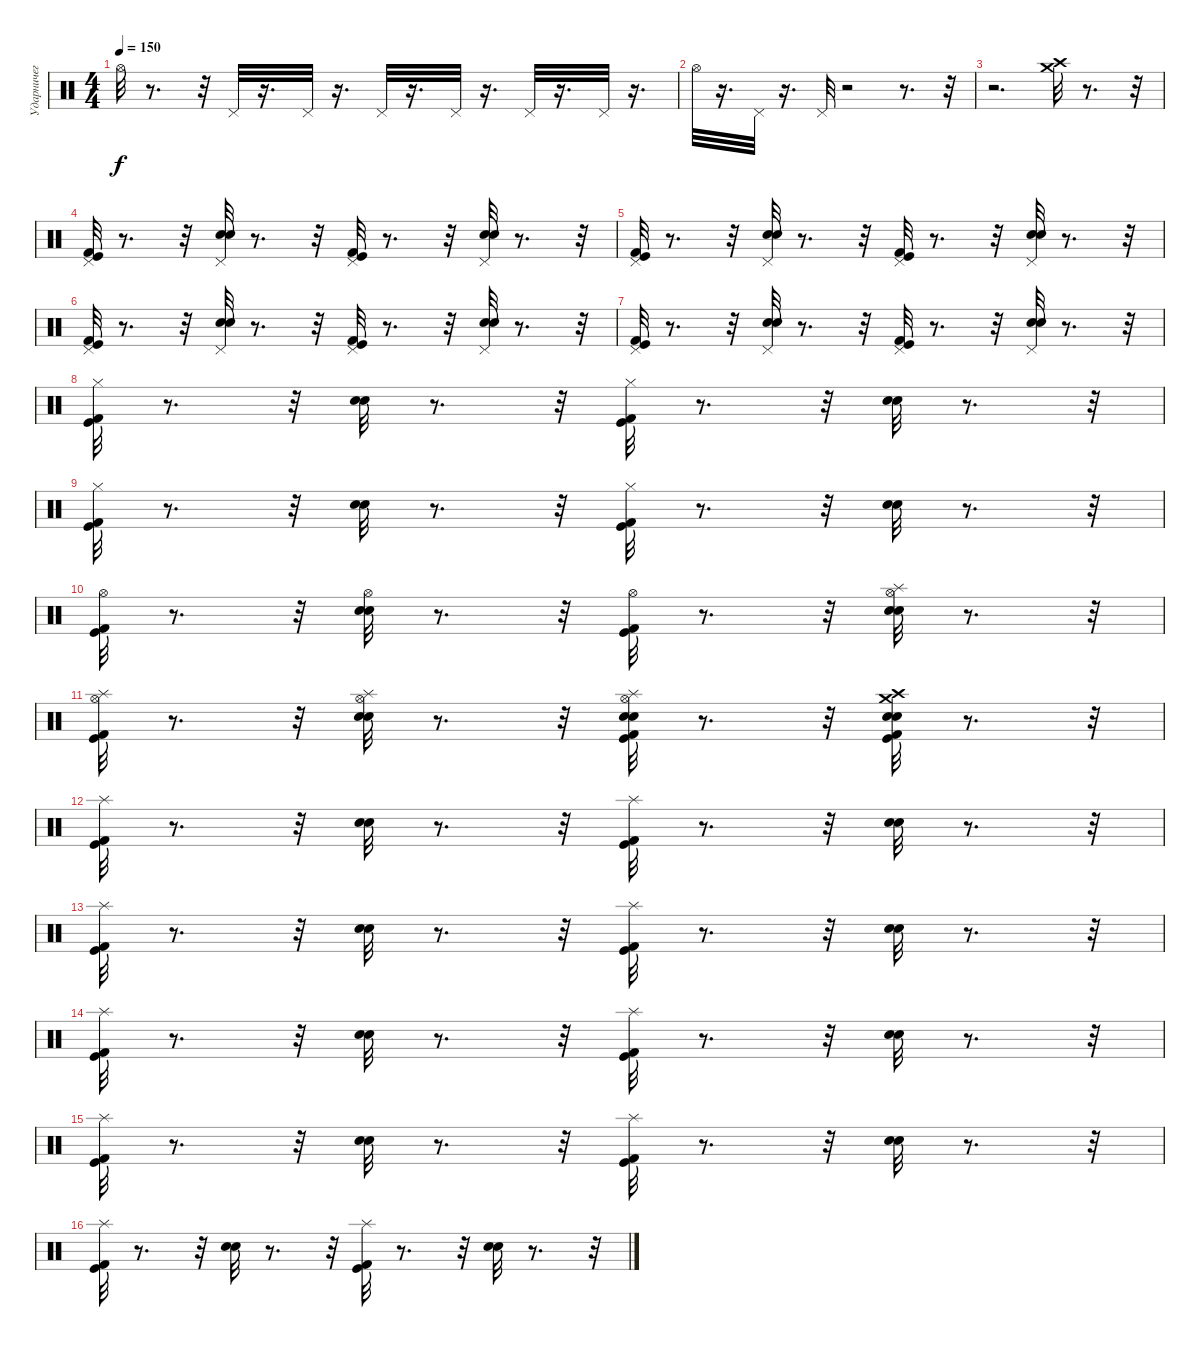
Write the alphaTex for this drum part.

\track ("Ударничег" "Ударничег") {instrument percussion}
\staff {score}
\articulation defaults
\ts (4 4)
\tempo 150
\clef neutral
\ks c "Hi-Hat (open)".32{dy f}
r.8{d} r.32 "Pedal Hi-Hat (hit)".32 r.16{d} "Pedal Hi-Hat (hit)".32 r.16{d} "Pedal Hi-Hat (hit)".32 r.16{d} "Pedal Hi-Hat (hit)".32 r.16{d} "Pedal Hi-Hat (hit)".32 r.16{d} "Pedal Hi-Hat (hit)".32 r.16{d} |
"Hi-Hat (open)".32 r.16{d} "Pedal Hi-Hat (hit)".32 r.16{d} "Pedal Hi-Hat (hit)".32 r.2 r.8{d} r.32 |
r.2{d} ("Crash high (hit)" "Crash medium (hit)").32 r.8{d} r.32 |
("Pedal Hi-Hat (hit)" "Kick (hit) 2" "Kick (hit)").32 r.8{d} r.32 ("Electric Snare (hit)" "Snare (hit) 2" "Pedal Hi-Hat (hit)").32 r.8{d} r.32 ("Pedal Hi-Hat (hit)" "Kick (hit)" "Kick (hit) 2").32 r.8{d} r.32 ("Snare (hit) 2" "Electric Snare (hit)" "Pedal Hi-Hat (hit)").32 r.8{d} r.32 |
("Pedal Hi-Hat (hit)" "Kick (hit)" "Kick (hit) 2").32 r.8{d} r.32 ("Electric Snare (hit)" "Snare (hit) 2" "Pedal Hi-Hat (hit)").32 r.8{d} r.32 ("Kick (hit)" "Kick (hit) 2" "Pedal Hi-Hat (hit)").32 r.8{d} r.32 ("Snare (hit) 2" "Electric Snare (hit)" "Pedal Hi-Hat (hit)").32 r.8{d} r.32 |
("Pedal Hi-Hat (hit)" "Kick (hit) 2" "Kick (hit)").32 r.8{d} r.32 ("Electric Snare (hit)" "Snare (hit) 2" "Pedal Hi-Hat (hit)").32 r.8{d} r.32 ("Pedal Hi-Hat (hit)" "Kick (hit)" "Kick (hit) 2").32 r.8{d} r.32 ("Snare (hit) 2" "Electric Snare (hit)" "Pedal Hi-Hat (hit)").32 r.8{d} r.32 |
("Pedal Hi-Hat (hit)" "Kick (hit)" "Kick (hit) 2").32 r.8{d} r.32 ("Electric Snare (hit)" "Snare (hit) 2" "Pedal Hi-Hat (hit)").32 r.8{d} r.32 ("Kick (hit)" "Kick (hit) 2" "Pedal Hi-Hat (hit)").32 r.8{d} r.32 ("Snare (hit) 2" "Electric Snare (hit)" "Pedal Hi-Hat (hit)").32 r.8{d} r.32 |
("Hi-Hat (closed)" "Kick (hit) 2" "Kick (hit)").32 r.8{d} r.32 ("Electric Snare (hit)" "Snare (hit) 2").32 r.8{d} r.32 ("Hi-Hat (closed)" "Kick (hit)" "Kick (hit) 2").32 r.8{d} r.32 ("Snare (hit) 2" "Electric Snare (hit)").32 r.8{d} r.32 |
("Hi-Hat (closed)" "Kick (hit)" "Kick (hit) 2").32 r.8{d} r.32 ("Electric Snare (hit)" "Snare (hit) 2").32 r.8{d} r.32 ("Hi-Hat (closed)" "Kick (hit)" "Kick (hit) 2").32 r.8{d} r.32 ("Snare (hit) 2" "Electric Snare (hit)").32 r.8{d} r.32 |
("Hi-Hat (open)" "Kick (hit) 2" "Kick (hit)").32 r.8{d} r.32 ("Hi-Hat (open)" "Electric Snare (hit)" "Snare (hit) 2").32 r.8{d} r.32 ("Hi-Hat (open)" "Kick (hit)" "Kick (hit) 2").32 r.8{d} r.32 ("Splash (hit)" "Hi-Hat (open)" "Snare (hit) 2" "Electric Snare (hit)").32 r.8{d} r.32 |
("Splash (hit)" "Hi-Hat (open)" "Kick (hit)" "Kick (hit) 2").32 r.8{d} r.32 ("Splash (hit)" "Hi-Hat (open)" "Electric Snare (hit)" "Snare (hit) 2").32 r.8{d} r.32 ("Splash (hit)" "Snare (hit) 2" "Electric Snare (hit)" "Hi-Hat (open)" "Kick (hit)" "Kick (hit) 2").32 r.8{d} r.32 ("Kick (hit)" "Kick (hit) 2" "Crash high (hit)" "Crash medium (hit)" "Snare (hit) 2" "Electric Snare (hit)").32 r.8{d} r.32 |
("Splash (hit)" "Kick (hit) 2" "Kick (hit)").32 r.8{d} r.32 ("Electric Snare (hit)" "Snare (hit) 2").32 r.8{d} r.32 ("Splash (hit)" "Kick (hit)" "Kick (hit) 2").32 r.8{d} r.32 ("Snare (hit) 2" "Electric Snare (hit)").32 r.8{d} r.32 |
("Splash (hit)" "Kick (hit) 2" "Kick (hit)").32 r.8{d} r.32 ("Electric Snare (hit)" "Snare (hit) 2").32 r.8{d} r.32 ("Splash (hit)" "Kick (hit)" "Kick (hit) 2").32 r.8{d} r.32 ("Snare (hit) 2" "Electric Snare (hit)").32 r.8{d} r.32 |
("Splash (hit)" "Kick (hit) 2" "Kick (hit)").32 r.8{d} r.32 ("Electric Snare (hit)" "Snare (hit) 2").32 r.8{d} r.32 ("Splash (hit)" "Kick (hit)" "Kick (hit) 2").32 r.8{d} r.32 ("Snare (hit) 2" "Electric Snare (hit)").32 r.8{d} r.32 |
("Splash (hit)" "Kick (hit) 2" "Kick (hit)").32 r.8{d} r.32 ("Electric Snare (hit)" "Snare (hit) 2").32 r.8{d} r.32 ("Splash (hit)" "Kick (hit)" "Kick (hit) 2").32 r.8{d} r.32 ("Snare (hit) 2" "Electric Snare (hit)").32 r.8{d} r.32 |
("Kick (hit) 2" "Kick (hit)" "Splash (hit)").32 r.8{d} r.32 ("Snare (hit) 2" "Electric Snare (hit)").32 r.8{d} r.32 ("Splash (hit)" "Kick (hit)" "Kick (hit) 2").32 r.8{d} r.32 ("Snare (hit) 2" "Electric Snare (hit)").32 r.8{d} r.32
